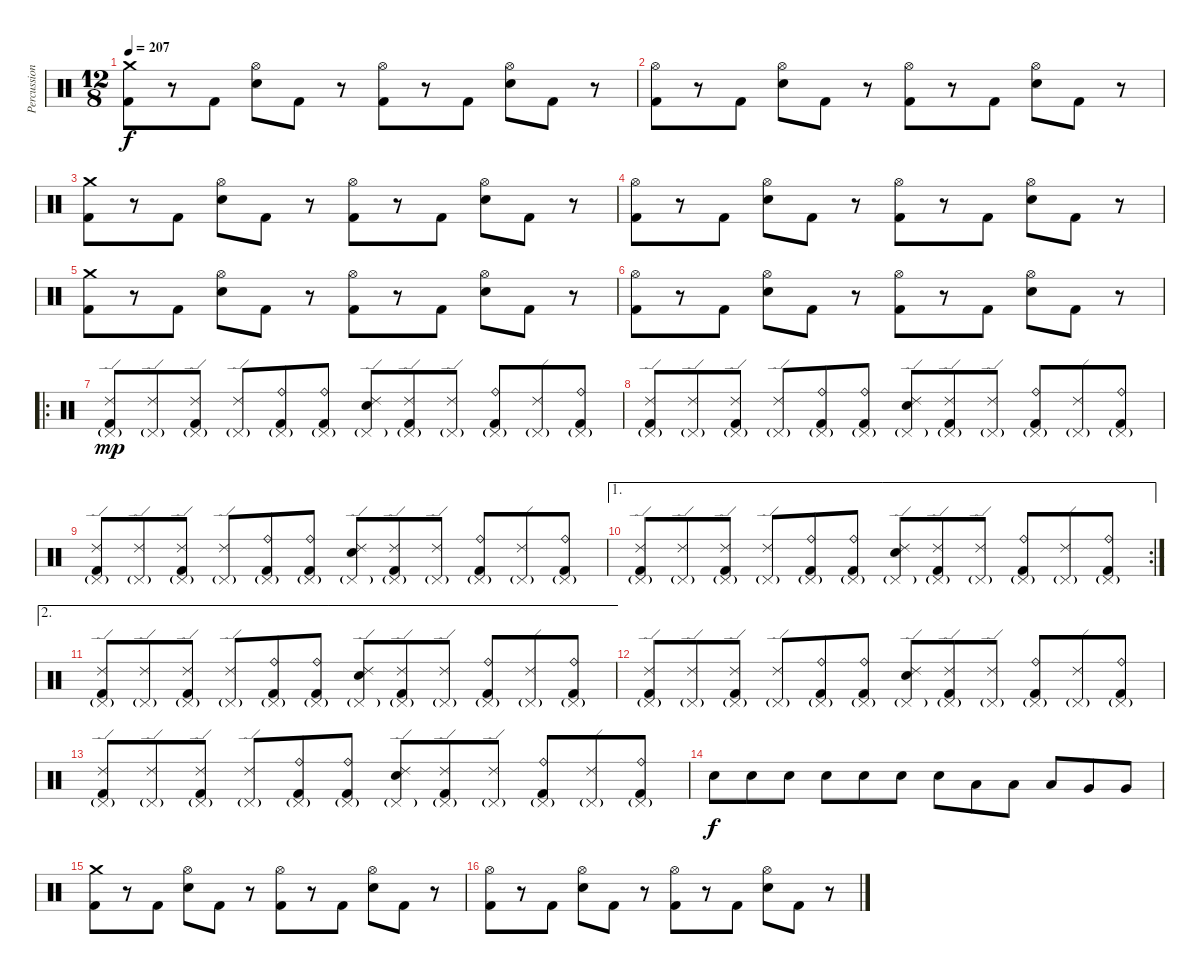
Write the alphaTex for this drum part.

\track ("Percussion" "Percussion") {instrument percussion}
\staff {score}
\articulation defaults
\ts (12 8)
\tempo 207
\clef neutral
\ks c
("Crash medium (hit)" "Kick (hit) 2").8{dy f} r.8 "Kick (hit) 2".8 ("Hi-Hat (open)" "Electric Snare (hit)").8 "Kick (hit) 2".8 r.8 ("Hi-Hat (open)" "Kick (hit) 2").8 r.8 "Kick (hit) 2".8 ("Hi-Hat (open)" "Electric Snare (hit)").8 "Kick (hit) 2".8 r.8 |
("Hi-Hat (open)" "Kick (hit) 2").8 r.8 "Kick (hit) 2".8 ("Hi-Hat (open)" "Electric Snare (hit)").8 "Kick (hit) 2".8 r.8 ("Hi-Hat (open)" "Kick (hit) 2").8 r.8 "Kick (hit) 2".8 ("Hi-Hat (open)" "Electric Snare (hit)").8 "Kick (hit) 2".8 r.8 |
("Crash medium (hit)" "Kick (hit) 2").8 r.8 "Kick (hit) 2".8 ("Hi-Hat (open)" "Electric Snare (hit)").8 "Kick (hit) 2".8 r.8 ("Hi-Hat (open)" "Kick (hit) 2").8 r.8 "Kick (hit) 2".8 ("Hi-Hat (open)" "Electric Snare (hit)").8 "Kick (hit) 2".8 r.8 |
("Hi-Hat (open)" "Kick (hit) 2").8 r.8 "Kick (hit) 2".8 ("Hi-Hat (open)" "Electric Snare (hit)").8 "Kick (hit) 2".8 r.8 ("Hi-Hat (open)" "Kick (hit) 2").8 r.8 "Kick (hit) 2".8 ("Hi-Hat (open)" "Electric Snare (hit)").8 "Kick (hit) 2".8 r.8 |
("Crash medium (hit)" "Kick (hit) 2").8 r.8 "Kick (hit) 2".8 ("Hi-Hat (open)" "Electric Snare (hit)").8 "Kick (hit) 2".8 r.8 ("Hi-Hat (open)" "Kick (hit) 2").8 r.8 "Kick (hit) 2".8 ("Hi-Hat (open)" "Electric Snare (hit)").8 "Kick (hit) 2".8 r.8 |
("Hi-Hat (open)" "Kick (hit) 2").8 r.8 "Kick (hit) 2".8 ("Hi-Hat (open)" "Electric Snare (hit)").8 "Kick (hit) 2".8 r.8 ("Hi-Hat (open)" "Kick (hit) 2").8 r.8 "Kick (hit) 2".8 ("Hi-Hat (open)" "Electric Snare (hit)").8 "Kick (hit) 2".8 r.8 |
\ro
("Ride (edge) 2" "Pedal Hi-Hat (hit)"{g} "Kick (hit) 2").8{dy mp} ("Ride (edge) 2" "Pedal Hi-Hat (hit)"{g}).8 ("Ride (edge) 2" "Pedal Hi-Hat (hit)"{g} "Kick (hit) 2").8 ("Ride (edge) 2" "Pedal Hi-Hat (hit)"{g}).8 ("Ride (bell)" "Pedal Hi-Hat (hit)"{g} "Kick (hit) 2").8 ("Ride (bell)" "Pedal Hi-Hat (hit)"{g} "Kick (hit) 2").8 ("Ride (edge) 2" "Pedal Hi-Hat (hit)"{g} "Electric Snare (hit)").8 ("Ride (edge) 2" "Pedal Hi-Hat (hit)"{g} "Kick (hit) 2").8 ("Ride (edge) 2" "Pedal Hi-Hat (hit)"{g}).8 ("Ride (bell)" "Pedal Hi-Hat (hit)"{g} "Kick (hit) 2").8 ("Ride (edge) 2" "Pedal Hi-Hat (hit)"{g}).8 ("Ride (bell)" "Pedal Hi-Hat (hit)"{g} "Kick (hit) 2").8 |
("Ride (edge) 2" "Pedal Hi-Hat (hit)"{g} "Kick (hit) 2").8 ("Ride (edge) 2" "Pedal Hi-Hat (hit)"{g}).8 ("Ride (edge) 2" "Pedal Hi-Hat (hit)"{g} "Kick (hit) 2").8 ("Ride (edge) 2" "Pedal Hi-Hat (hit)"{g}).8 ("Ride (bell)" "Pedal Hi-Hat (hit)"{g} "Kick (hit) 2").8 ("Ride (bell)" "Pedal Hi-Hat (hit)"{g} "Kick (hit) 2").8 ("Ride (edge) 2" "Pedal Hi-Hat (hit)"{g} "Electric Snare (hit)").8 ("Ride (edge) 2" "Pedal Hi-Hat (hit)"{g} "Kick (hit) 2").8 ("Ride (edge) 2" "Pedal Hi-Hat (hit)"{g}).8 ("Ride (bell)" "Pedal Hi-Hat (hit)"{g} "Kick (hit) 2").8 ("Ride (edge) 2" "Pedal Hi-Hat (hit)"{g}).8 ("Ride (bell)" "Pedal Hi-Hat (hit)"{g} "Kick (hit) 2").8 |
("Ride (edge) 2" "Pedal Hi-Hat (hit)"{g} "Kick (hit) 2").8 ("Ride (edge) 2" "Pedal Hi-Hat (hit)"{g}).8 ("Ride (edge) 2" "Pedal Hi-Hat (hit)"{g} "Kick (hit) 2").8 ("Ride (edge) 2" "Pedal Hi-Hat (hit)"{g}).8 ("Ride (bell)" "Pedal Hi-Hat (hit)"{g} "Kick (hit) 2").8 ("Ride (bell)" "Pedal Hi-Hat (hit)"{g} "Kick (hit) 2").8 ("Ride (edge) 2" "Pedal Hi-Hat (hit)"{g} "Electric Snare (hit)").8 ("Ride (edge) 2" "Pedal Hi-Hat (hit)"{g} "Kick (hit) 2").8 ("Ride (edge) 2" "Pedal Hi-Hat (hit)"{g}).8 ("Ride (bell)" "Pedal Hi-Hat (hit)"{g} "Kick (hit) 2").8 ("Ride (edge) 2" "Pedal Hi-Hat (hit)"{g}).8 ("Ride (bell)" "Pedal Hi-Hat (hit)"{g} "Kick (hit) 2").8 |
\ae 1
\rc 2
("Ride (edge) 2" "Pedal Hi-Hat (hit)"{g} "Kick (hit) 2").8 ("Ride (edge) 2" "Pedal Hi-Hat (hit)"{g}).8 ("Ride (edge) 2" "Pedal Hi-Hat (hit)"{g} "Kick (hit) 2").8 ("Ride (edge) 2" "Pedal Hi-Hat (hit)"{g}).8 ("Ride (bell)" "Pedal Hi-Hat (hit)"{g} "Kick (hit) 2").8 ("Ride (bell)" "Pedal Hi-Hat (hit)"{g} "Kick (hit) 2").8 ("Ride (edge) 2" "Pedal Hi-Hat (hit)"{g} "Electric Snare (hit)").8 ("Ride (edge) 2" "Pedal Hi-Hat (hit)"{g} "Kick (hit) 2").8 ("Ride (edge) 2" "Pedal Hi-Hat (hit)"{g}).8 ("Ride (bell)" "Pedal Hi-Hat (hit)"{g} "Kick (hit) 2").8 ("Ride (edge) 2" "Pedal Hi-Hat (hit)"{g}).8 ("Ride (bell)" "Pedal Hi-Hat (hit)"{g} "Kick (hit) 2").8 |
\ae 2
("Ride (edge) 2" "Pedal Hi-Hat (hit)"{g} "Kick (hit) 2").8 ("Ride (edge) 2" "Pedal Hi-Hat (hit)"{g}).8 ("Ride (edge) 2" "Pedal Hi-Hat (hit)"{g} "Kick (hit) 2").8 ("Ride (edge) 2" "Pedal Hi-Hat (hit)"{g}).8 ("Ride (bell)" "Pedal Hi-Hat (hit)"{g} "Kick (hit) 2").8 ("Ride (bell)" "Pedal Hi-Hat (hit)"{g} "Kick (hit) 2").8 ("Ride (edge) 2" "Pedal Hi-Hat (hit)"{g} "Electric Snare (hit)").8 ("Ride (edge) 2" "Pedal Hi-Hat (hit)"{g} "Kick (hit) 2").8 ("Ride (edge) 2" "Pedal Hi-Hat (hit)"{g}).8 ("Ride (bell)" "Pedal Hi-Hat (hit)"{g} "Kick (hit) 2").8 ("Ride (edge) 2" "Pedal Hi-Hat (hit)"{g}).8 ("Ride (bell)" "Pedal Hi-Hat (hit)"{g} "Kick (hit) 2").8 |
("Ride (edge) 2" "Pedal Hi-Hat (hit)"{g} "Kick (hit) 2").8 ("Ride (edge) 2" "Pedal Hi-Hat (hit)"{g}).8 ("Ride (edge) 2" "Pedal Hi-Hat (hit)"{g} "Kick (hit) 2").8 ("Ride (edge) 2" "Pedal Hi-Hat (hit)"{g}).8 ("Ride (bell)" "Pedal Hi-Hat (hit)"{g} "Kick (hit) 2").8 ("Ride (bell)" "Pedal Hi-Hat (hit)"{g} "Kick (hit) 2").8 ("Ride (edge) 2" "Pedal Hi-Hat (hit)"{g} "Electric Snare (hit)").8 ("Ride (edge) 2" "Pedal Hi-Hat (hit)"{g} "Kick (hit) 2").8 ("Ride (edge) 2" "Pedal Hi-Hat (hit)"{g}).8 ("Ride (bell)" "Pedal Hi-Hat (hit)"{g} "Kick (hit) 2").8 ("Ride (edge) 2" "Pedal Hi-Hat (hit)"{g}).8 ("Ride (bell)" "Pedal Hi-Hat (hit)"{g} "Kick (hit) 2").8 |
("Ride (edge) 2" "Pedal Hi-Hat (hit)"{g} "Kick (hit) 2").8 ("Ride (edge) 2" "Pedal Hi-Hat (hit)"{g}).8 ("Ride (edge) 2" "Pedal Hi-Hat (hit)"{g} "Kick (hit) 2").8 ("Ride (edge) 2" "Pedal Hi-Hat (hit)"{g}).8 ("Ride (bell)" "Pedal Hi-Hat (hit)"{g} "Kick (hit) 2").8 ("Ride (bell)" "Pedal Hi-Hat (hit)"{g} "Kick (hit) 2").8 ("Ride (edge) 2" "Pedal Hi-Hat (hit)"{g} "Electric Snare (hit)").8 ("Ride (edge) 2" "Pedal Hi-Hat (hit)"{g} "Kick (hit) 2").8 ("Ride (edge) 2" "Pedal Hi-Hat (hit)"{g}).8 ("Ride (bell)" "Pedal Hi-Hat (hit)"{g} "Kick (hit) 2").8 ("Ride (edge) 2" "Pedal Hi-Hat (hit)"{g}).8 ("Ride (bell)" "Pedal Hi-Hat (hit)"{g} "Kick (hit) 2").8 |
"Electric Snare (hit)".8{dy f} "Electric Snare (hit)".8 "Electric Snare (hit)".8 "Electric Snare (hit)".8 "Electric Snare (hit)".8 "Electric Snare (hit)".8 "Electric Snare (hit)".8 "Low Tom (hit)".8 "Low Tom (hit)".8 "Low Tom (hit)".8 "Very Low Tom (hit)".8 "Very Low Tom (hit)".8 |
("Crash medium (hit)" "Kick (hit) 2").8 r.8 "Kick (hit) 2".8 ("Hi-Hat (open)" "Electric Snare (hit)").8 "Kick (hit) 2".8 r.8 ("Hi-Hat (open)" "Kick (hit) 2").8 r.8 "Kick (hit) 2".8 ("Hi-Hat (open)" "Electric Snare (hit)").8 "Kick (hit) 2".8 r.8 |
("Hi-Hat (open)" "Kick (hit) 2").8 r.8 "Kick (hit) 2".8 ("Hi-Hat (open)" "Electric Snare (hit)").8 "Kick (hit) 2".8 r.8 ("Hi-Hat (open)" "Kick (hit) 2").8 r.8 "Kick (hit) 2".8 ("Hi-Hat (open)" "Electric Snare (hit)").8 "Kick (hit) 2".8 r.8
